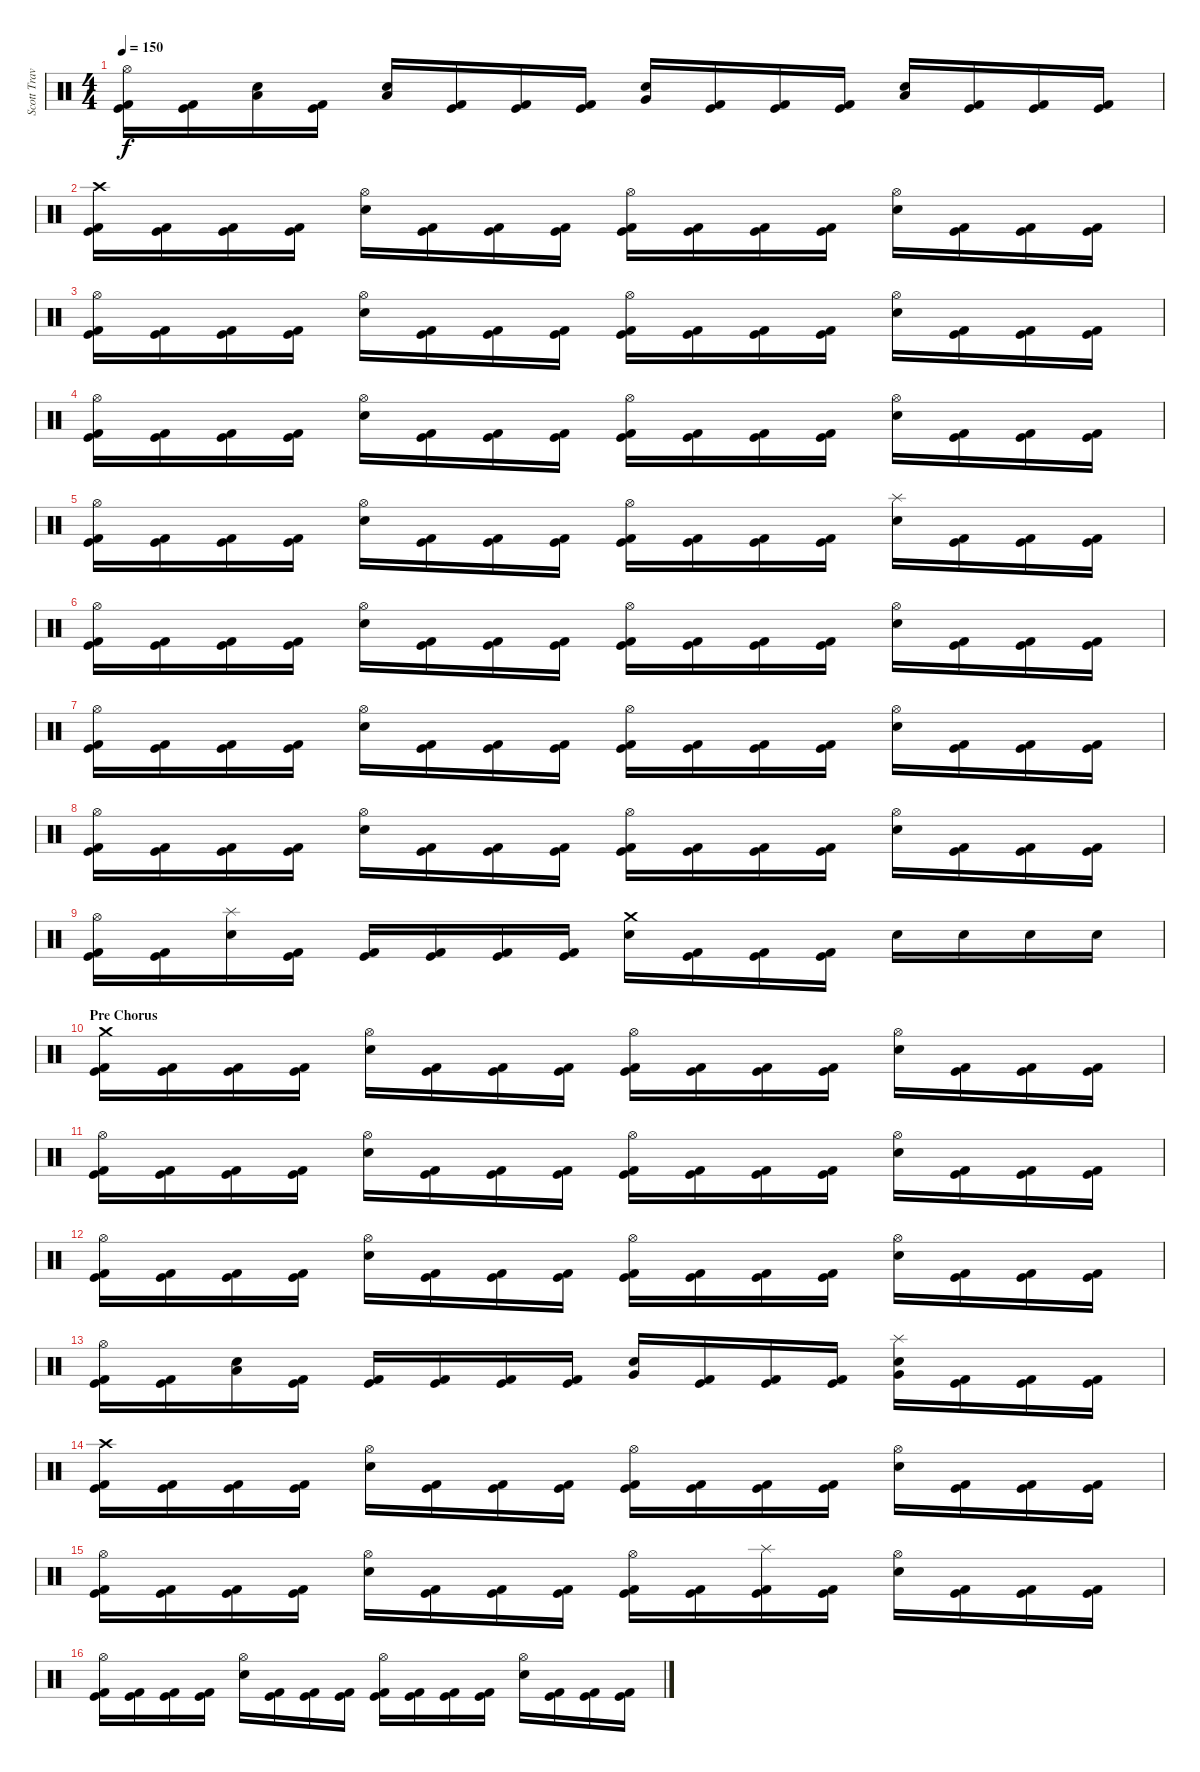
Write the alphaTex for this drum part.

\track ("Scott Travis" "Scott Trav") {instrument percussion}
\staff {score}
\articulation defaults
\ts (4 4)
\tempo 150
\clef neutral
\ks c
("Hi-Hat (open)" "Kick (hit)" "Kick (hit) 2").16{dy f} ("Kick (hit)" "Kick (hit) 2").16 ("Low Tom (hit)" "Electric Snare (hit)").16 ("Kick (hit)" "Kick (hit) 2").16 ("Low Tom (hit)" "Electric Snare (hit)").16 ("Kick (hit)" "Kick (hit) 2").16 ("Kick (hit)" "Kick (hit) 2").16 ("Kick (hit)" "Kick (hit) 2").16 ("Very Low Tom (hit)" "Electric Snare (hit)").16 ("Kick (hit)" "Kick (hit) 2").16 ("Kick (hit)" "Kick (hit) 2").16 ("Kick (hit)" "Kick (hit) 2").16 ("Low Floor Tom (hit)" "Electric Snare (hit)").16 ("Kick (hit)" "Kick (hit) 2").16 ("Kick (hit)" "Kick (hit) 2").16 ("Kick (hit)" "Kick (hit) 2").16 |
("Crash high (hit)" "Kick (hit)" "Kick (hit) 2").16 ("Kick (hit)" "Kick (hit) 2").16 ("Kick (hit)" "Kick (hit) 2").16 ("Kick (hit)" "Kick (hit) 2").16 ("Hi-Hat (open)" "Electric Snare (hit)").16 ("Kick (hit)" "Kick (hit) 2").16 ("Kick (hit)" "Kick (hit) 2").16 ("Kick (hit)" "Kick (hit) 2").16 ("Hi-Hat (open)" "Kick (hit)" "Kick (hit) 2").16 ("Kick (hit)" "Kick (hit) 2").16 ("Kick (hit)" "Kick (hit) 2").16 ("Kick (hit)" "Kick (hit) 2").16 ("Hi-Hat (open)" "Electric Snare (hit)").16 ("Kick (hit)" "Kick (hit) 2").16 ("Kick (hit)" "Kick (hit) 2").16 ("Kick (hit)" "Kick (hit) 2").16 |
("Hi-Hat (open)" "Kick (hit)" "Kick (hit) 2").16 ("Kick (hit)" "Kick (hit) 2").16 ("Kick (hit)" "Kick (hit) 2").16 ("Kick (hit)" "Kick (hit) 2").16 ("Hi-Hat (open)" "Electric Snare (hit)").16 ("Kick (hit)" "Kick (hit) 2").16 ("Kick (hit)" "Kick (hit) 2").16 ("Kick (hit)" "Kick (hit) 2").16 ("Hi-Hat (open)" "Kick (hit)" "Kick (hit) 2").16 ("Kick (hit)" "Kick (hit) 2").16 ("Kick (hit)" "Kick (hit) 2").16 ("Kick (hit)" "Kick (hit) 2").16 ("Hi-Hat (open)" "Electric Snare (hit)").16 ("Kick (hit)" "Kick (hit) 2").16 ("Kick (hit)" "Kick (hit) 2").16 ("Kick (hit)" "Kick (hit) 2").16 |
("Hi-Hat (open)" "Kick (hit)" "Kick (hit) 2").16 ("Kick (hit)" "Kick (hit) 2").16 ("Kick (hit)" "Kick (hit) 2").16 ("Kick (hit)" "Kick (hit) 2").16 ("Hi-Hat (open)" "Electric Snare (hit)").16 ("Kick (hit)" "Kick (hit) 2").16 ("Kick (hit)" "Kick (hit) 2").16 ("Kick (hit)" "Kick (hit) 2").16 ("Hi-Hat (open)" "Kick (hit)" "Kick (hit) 2").16 ("Kick (hit)" "Kick (hit) 2").16 ("Kick (hit)" "Kick (hit) 2").16 ("Kick (hit)" "Kick (hit) 2").16 ("Hi-Hat (open)" "Electric Snare (hit)").16 ("Kick (hit)" "Kick (hit) 2").16 ("Kick (hit)" "Kick (hit) 2").16 ("Kick (hit)" "Kick (hit) 2").16 |
("Hi-Hat (open)" "Kick (hit)" "Kick (hit) 2").16 ("Kick (hit)" "Kick (hit) 2").16 ("Kick (hit)" "Kick (hit) 2").16 ("Kick (hit)" "Kick (hit) 2").16 ("Hi-Hat (open)" "Electric Snare (hit)").16 ("Kick (hit)" "Kick (hit) 2").16 ("Kick (hit)" "Kick (hit) 2").16 ("Kick (hit)" "Kick (hit) 2").16 ("Hi-Hat (open)" "Kick (hit)" "Kick (hit) 2").16 ("Kick (hit)" "Kick (hit) 2").16 ("Kick (hit)" "Kick (hit) 2").16 ("Kick (hit)" "Kick (hit) 2").16 ("Splash (hit)" "Electric Snare (hit)").16 ("Kick (hit)" "Kick (hit) 2").16 ("Kick (hit)" "Kick (hit) 2").16 ("Kick (hit)" "Kick (hit) 2").16 |
("Hi-Hat (open)" "Kick (hit)" "Kick (hit) 2").16 ("Kick (hit)" "Kick (hit) 2").16 ("Kick (hit)" "Kick (hit) 2").16 ("Kick (hit)" "Kick (hit) 2").16 ("Hi-Hat (open)" "Electric Snare (hit)").16 ("Kick (hit)" "Kick (hit) 2").16 ("Kick (hit)" "Kick (hit) 2").16 ("Kick (hit)" "Kick (hit) 2").16 ("Hi-Hat (open)" "Kick (hit)" "Kick (hit) 2").16 ("Kick (hit)" "Kick (hit) 2").16 ("Kick (hit)" "Kick (hit) 2").16 ("Kick (hit)" "Kick (hit) 2").16 ("Hi-Hat (open)" "Electric Snare (hit)").16 ("Kick (hit)" "Kick (hit) 2").16 ("Kick (hit)" "Kick (hit) 2").16 ("Kick (hit)" "Kick (hit) 2").16 |
("Hi-Hat (open)" "Kick (hit)" "Kick (hit) 2").16 ("Kick (hit)" "Kick (hit) 2").16 ("Kick (hit)" "Kick (hit) 2").16 ("Kick (hit)" "Kick (hit) 2").16 ("Hi-Hat (open)" "Electric Snare (hit)").16 ("Kick (hit)" "Kick (hit) 2").16 ("Kick (hit)" "Kick (hit) 2").16 ("Kick (hit)" "Kick (hit) 2").16 ("Hi-Hat (open)" "Kick (hit)" "Kick (hit) 2").16 ("Kick (hit)" "Kick (hit) 2").16 ("Kick (hit)" "Kick (hit) 2").16 ("Kick (hit)" "Kick (hit) 2").16 ("Hi-Hat (open)" "Electric Snare (hit)").16 ("Kick (hit)" "Kick (hit) 2").16 ("Kick (hit)" "Kick (hit) 2").16 ("Kick (hit)" "Kick (hit) 2").16 |
("Hi-Hat (open)" "Kick (hit)" "Kick (hit) 2").16 ("Kick (hit)" "Kick (hit) 2").16 ("Kick (hit)" "Kick (hit) 2").16 ("Kick (hit)" "Kick (hit) 2").16 ("Hi-Hat (open)" "Electric Snare (hit)").16 ("Kick (hit)" "Kick (hit) 2").16 ("Kick (hit)" "Kick (hit) 2").16 ("Kick (hit)" "Kick (hit) 2").16 ("Hi-Hat (open)" "Kick (hit)" "Kick (hit) 2").16 ("Kick (hit)" "Kick (hit) 2").16 ("Kick (hit)" "Kick (hit) 2").16 ("Kick (hit)" "Kick (hit) 2").16 ("Hi-Hat (open)" "Electric Snare (hit)").16 ("Kick (hit)" "Kick (hit) 2").16 ("Kick (hit)" "Kick (hit) 2").16 ("Kick (hit)" "Kick (hit) 2").16 |
("Hi-Hat (open)" "Kick (hit)" "Kick (hit) 2").16 ("Kick (hit)" "Kick (hit) 2").16 ("Splash (hit)" "Electric Snare (hit)").16 ("Kick (hit)" "Kick (hit) 2").16 ("Kick (hit)" "Kick (hit) 2").16 ("Kick (hit)" "Kick (hit) 2").16 ("Kick (hit)" "Kick (hit) 2").16 ("Kick (hit)" "Kick (hit) 2").16 ("Crash medium (hit)" "Electric Snare (hit)").16 ("Kick (hit)" "Kick (hit) 2").16 ("Kick (hit)" "Kick (hit) 2").16 ("Kick (hit)" "Kick (hit) 2").16 "Electric Snare (hit)".16 "Electric Snare (hit)".16 "Electric Snare (hit)".16 "Electric Snare (hit)".16 |
\section ("" "Pre Chorus")
("Crash medium (hit)" "Kick (hit)" "Kick (hit) 2").16 ("Kick (hit)" "Kick (hit) 2").16 ("Kick (hit)" "Kick (hit) 2").16 ("Kick (hit)" "Kick (hit) 2").16 ("Hi-Hat (open)" "Electric Snare (hit)").16 ("Kick (hit)" "Kick (hit) 2").16 ("Kick (hit)" "Kick (hit) 2").16 ("Kick (hit)" "Kick (hit) 2").16 ("Hi-Hat (open)" "Kick (hit)" "Kick (hit) 2").16 ("Kick (hit)" "Kick (hit) 2").16 ("Kick (hit)" "Kick (hit) 2").16 ("Kick (hit)" "Kick (hit) 2").16 ("Hi-Hat (open)" "Electric Snare (hit)").16 ("Kick (hit)" "Kick (hit) 2").16 ("Kick (hit)" "Kick (hit) 2").16 ("Kick (hit)" "Kick (hit) 2").16 |
("Hi-Hat (open)" "Kick (hit)" "Kick (hit) 2").16 ("Kick (hit)" "Kick (hit) 2").16 ("Kick (hit)" "Kick (hit) 2").16 ("Kick (hit)" "Kick (hit) 2").16 ("Hi-Hat (open)" "Electric Snare (hit)").16 ("Kick (hit)" "Kick (hit) 2").16 ("Kick (hit)" "Kick (hit) 2").16 ("Kick (hit)" "Kick (hit) 2").16 ("Hi-Hat (open)" "Kick (hit)" "Kick (hit) 2").16 ("Kick (hit)" "Kick (hit) 2").16 ("Kick (hit)" "Kick (hit) 2").16 ("Kick (hit)" "Kick (hit) 2").16 ("Hi-Hat (open)" "Electric Snare (hit)").16 ("Kick (hit)" "Kick (hit) 2").16 ("Kick (hit)" "Kick (hit) 2").16 ("Kick (hit)" "Kick (hit) 2").16 |
("Hi-Hat (open)" "Kick (hit)" "Kick (hit) 2").16 ("Kick (hit)" "Kick (hit) 2").16 ("Kick (hit)" "Kick (hit) 2").16 ("Kick (hit)" "Kick (hit) 2").16 ("Hi-Hat (open)" "Electric Snare (hit)").16 ("Kick (hit)" "Kick (hit) 2").16 ("Kick (hit)" "Kick (hit) 2").16 ("Kick (hit)" "Kick (hit) 2").16 ("Hi-Hat (open)" "Kick (hit)" "Kick (hit) 2").16 ("Kick (hit)" "Kick (hit) 2").16 ("Kick (hit)" "Kick (hit) 2").16 ("Kick (hit)" "Kick (hit) 2").16 ("Hi-Hat (open)" "Electric Snare (hit)").16 ("Kick (hit)" "Kick (hit) 2").16 ("Kick (hit)" "Kick (hit) 2").16 ("Kick (hit)" "Kick (hit) 2").16 |
("Hi-Hat (open)" "Kick (hit)" "Kick (hit) 2").16 ("Kick (hit)" "Kick (hit) 2").16 ("Low Tom (hit)" "Electric Snare (hit)").16 ("Kick (hit)" "Kick (hit) 2").16 ("Kick (hit)" "Kick (hit) 2").16 ("Kick (hit)" "Kick (hit) 2").16 ("Kick (hit)" "Kick (hit) 2").16 ("Kick (hit)" "Kick (hit) 2").16 ("Very Low Tom (hit)" "Electric Snare (hit)").16 ("Kick (hit)" "Kick (hit) 2").16 ("Kick (hit)" "Kick (hit) 2").16 ("Kick (hit)" "Kick (hit) 2").16 ("Splash (hit)" "Very Low Tom (hit)" "Electric Snare (hit)").16 ("Kick (hit)" "Kick (hit) 2").16 ("Kick (hit)" "Kick (hit) 2").16 ("Kick (hit)" "Kick (hit) 2").16 |
("Crash high (hit)" "Kick (hit)" "Kick (hit) 2").16 ("Kick (hit)" "Kick (hit) 2").16 ("Kick (hit)" "Kick (hit) 2").16 ("Kick (hit)" "Kick (hit) 2").16 ("Hi-Hat (open)" "Electric Snare (hit)").16 ("Kick (hit)" "Kick (hit) 2").16 ("Kick (hit)" "Kick (hit) 2").16 ("Kick (hit)" "Kick (hit) 2").16 ("Hi-Hat (open)" "Kick (hit)" "Kick (hit) 2").16 ("Kick (hit)" "Kick (hit) 2").16 ("Kick (hit)" "Kick (hit) 2").16 ("Kick (hit)" "Kick (hit) 2").16 ("Hi-Hat (open)" "Electric Snare (hit)").16 ("Kick (hit)" "Kick (hit) 2").16 ("Kick (hit)" "Kick (hit) 2").16 ("Kick (hit)" "Kick (hit) 2").16 |
("Hi-Hat (open)" "Kick (hit)" "Kick (hit) 2").16 ("Kick (hit)" "Kick (hit) 2").16 ("Kick (hit)" "Kick (hit) 2").16 ("Kick (hit)" "Kick (hit) 2").16 ("Hi-Hat (open)" "Electric Snare (hit)").16 ("Kick (hit)" "Kick (hit) 2").16 ("Kick (hit)" "Kick (hit) 2").16 ("Kick (hit)" "Kick (hit) 2").16 ("Hi-Hat (open)" "Kick (hit)" "Kick (hit) 2").16 ("Kick (hit)" "Kick (hit) 2").16 ("Splash (hit)" "Kick (hit)" "Kick (hit) 2").16 ("Kick (hit)" "Kick (hit) 2").16 ("Hi-Hat (open)" "Electric Snare (hit)").16 ("Kick (hit)" "Kick (hit) 2").16 ("Kick (hit)" "Kick (hit) 2").16 ("Kick (hit)" "Kick (hit) 2").16 |
("Hi-Hat (open)" "Kick (hit)" "Kick (hit) 2").16 ("Kick (hit)" "Kick (hit) 2").16 ("Kick (hit)" "Kick (hit) 2").16 ("Kick (hit)" "Kick (hit) 2").16 ("Hi-Hat (open)" "Electric Snare (hit)").16 ("Kick (hit)" "Kick (hit) 2").16 ("Kick (hit)" "Kick (hit) 2").16 ("Kick (hit)" "Kick (hit) 2").16 ("Hi-Hat (open)" "Kick (hit)" "Kick (hit) 2").16 ("Kick (hit)" "Kick (hit) 2").16 ("Kick (hit)" "Kick (hit) 2").16 ("Kick (hit)" "Kick (hit) 2").16 ("Hi-Hat (open)" "Electric Snare (hit)").16 ("Kick (hit)" "Kick (hit) 2").16 ("Kick (hit)" "Kick (hit) 2").16 ("Kick (hit)" "Kick (hit) 2").16
